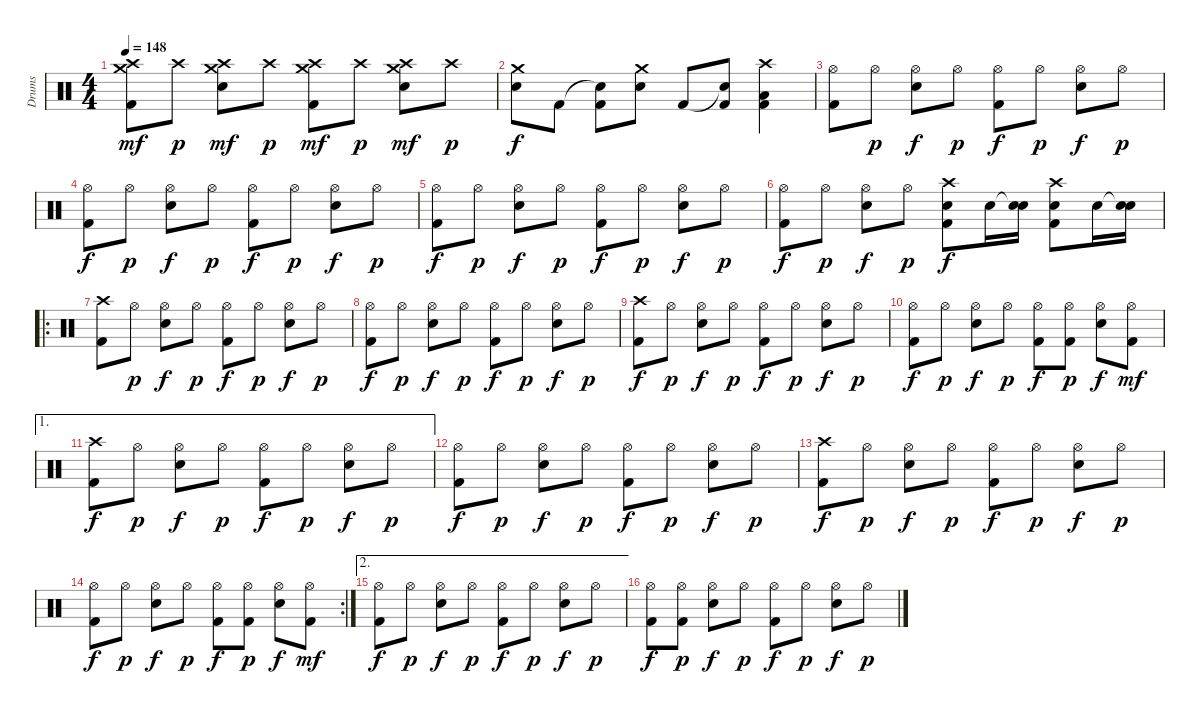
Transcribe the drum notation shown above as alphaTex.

\track ("Drums" "Drums") {instrument percussion}
\staff {score}
\articulation defaults
\ts (4 4)
\tempo 148
\clef neutral
\ks c
("Crash high (hit)" "Crash medium (hit)" "Kick (hit) 2").8{dy mf} "Crash high (hit)".8{dy p} ("Crash high (hit)" "Crash medium (hit)" "Snare (hit) 2").8{dy mf} "Crash high (hit)".8{dy p} ("Crash high (hit)" "Crash medium (hit)" "Kick (hit) 2").8{dy mf} "Crash high (hit)".8{dy p} ("Crash high (hit)" "Crash medium (hit)" "Snare (hit) 2").8{dy mf} "Crash high (hit)".8{dy p} |
("Crash medium (hit)" "Snare (hit) 2").8{dy f} "Kick (hit) 2".8 ("Snare (hit)"{t} "Kick (hit) 2").8 ("Crash medium (hit)" "Snare (hit) 2").8 "Kick (hit) 2".8 ("Snare (hit)"{t} "Kick (hit) 2").8 ("Crash high (hit)" "Low Floor Tom (hit)" "Kick (hit) 2").4 |
("Hi-Hat (open)" "Kick (hit) 2").8 "Hi-Hat (open)".8{dy p} ("Hi-Hat (open)" "Snare (hit) 2").8{dy f} "Hi-Hat (open)".8{dy p} ("Hi-Hat (open)" "Kick (hit) 2").8{dy f} "Hi-Hat (open)".8{dy p} ("Hi-Hat (open)" "Snare (hit) 2").8{dy f} "Hi-Hat (open)".8{dy p} |
("Hi-Hat (open)" "Kick (hit) 2").8{dy f} "Hi-Hat (open)".8{dy p} ("Hi-Hat (open)" "Snare (hit) 2").8{dy f} "Hi-Hat (open)".8{dy p} ("Hi-Hat (open)" "Kick (hit) 2").8{dy f} "Hi-Hat (open)".8{dy p} ("Hi-Hat (open)" "Snare (hit) 2").8{dy f} "Hi-Hat (open)".8{dy p} |
("Hi-Hat (open)" "Kick (hit) 2").8{dy f} "Hi-Hat (open)".8{dy p} ("Hi-Hat (open)" "Snare (hit) 2").8{dy f} "Hi-Hat (open)".8{dy p} ("Hi-Hat (open)" "Kick (hit) 2").8{dy f} "Hi-Hat (open)".8{dy p} ("Hi-Hat (open)" "Snare (hit) 2").8{dy f} "Hi-Hat (open)".8{dy p} |
("Hi-Hat (open)" "Kick (hit) 2").8{dy f} "Hi-Hat (open)".8{dy p} ("Hi-Hat (open)" "Snare (hit) 2").8{dy f} "Hi-Hat (open)".8{dy p} ("Crash high (hit)" "Snare (hit) 2" "Kick (hit) 2").8{dy f} "Snare (hit) 2".16 ("Snare (hit)"{t} "Snare (hit) 2").16 ("Crash high (hit)" "Snare (hit) 2" "Kick (hit) 2").8 "Snare (hit) 2".16 ("Snare (hit)"{t} "Snare (hit) 2").16 |
\ro
("Crash high (hit)" "Kick (hit) 2").8 "Hi-Hat (open)".8{dy p} ("Hi-Hat (open)" "Snare (hit) 2").8{dy f} "Hi-Hat (open)".8{dy p} ("Hi-Hat (open)" "Kick (hit) 2").8{dy f} "Hi-Hat (open)".8{dy p} ("Hi-Hat (open)" "Snare (hit) 2").8{dy f} "Hi-Hat (open)".8{dy p} |
("Hi-Hat (open)" "Kick (hit) 2").8{dy f} "Hi-Hat (open)".8{dy p} ("Hi-Hat (open)" "Snare (hit) 2").8{dy f} "Hi-Hat (open)".8{dy p} ("Hi-Hat (open)" "Kick (hit) 2").8{dy f} "Hi-Hat (open)".8{dy p} ("Hi-Hat (open)" "Snare (hit) 2").8{dy f} "Hi-Hat (open)".8{dy p} |
("Crash high (hit)" "Kick (hit) 2").8{dy f} "Hi-Hat (open)".8{dy p} ("Hi-Hat (open)" "Snare (hit) 2").8{dy f} "Hi-Hat (open)".8{dy p} ("Hi-Hat (open)" "Kick (hit) 2").8{dy f} "Hi-Hat (open)".8{dy p} ("Hi-Hat (open)" "Snare (hit) 2").8{dy f} "Hi-Hat (open)".8{dy p} |
("Hi-Hat (open)" "Kick (hit) 2").8{dy f} "Hi-Hat (open)".8{dy p} ("Hi-Hat (open)" "Snare (hit) 2").8{dy f} "Hi-Hat (open)".8{dy p} ("Hi-Hat (open)" "Kick (hit) 2").8{dy f} ("Hi-Hat (open)" "Kick (hit) 2").8{dy p} ("Hi-Hat (open)" "Snare (hit) 2").8{dy f} ("Hi-Hat (open)" "Kick (hit) 2").8{dy mf} |
\ae 1
("Crash high (hit)" "Kick (hit) 2").8{dy f} "Hi-Hat (open)".8{dy p} ("Hi-Hat (open)" "Snare (hit) 2").8{dy f} "Hi-Hat (open)".8{dy p} ("Hi-Hat (open)" "Kick (hit) 2").8{dy f} "Hi-Hat (open)".8{dy p} ("Hi-Hat (open)" "Snare (hit) 2").8{dy f} "Hi-Hat (open)".8{dy p} |
("Hi-Hat (open)" "Kick (hit) 2").8{dy f} "Hi-Hat (open)".8{dy p} ("Hi-Hat (open)" "Snare (hit) 2").8{dy f} "Hi-Hat (open)".8{dy p} ("Hi-Hat (open)" "Kick (hit) 2").8{dy f} "Hi-Hat (open)".8{dy p} ("Hi-Hat (open)" "Snare (hit) 2").8{dy f} "Hi-Hat (open)".8{dy p} |
("Crash high (hit)" "Kick (hit) 2").8{dy f} "Hi-Hat (open)".8{dy p} ("Hi-Hat (open)" "Snare (hit) 2").8{dy f} "Hi-Hat (open)".8{dy p} ("Hi-Hat (open)" "Kick (hit) 2").8{dy f} "Hi-Hat (open)".8{dy p} ("Hi-Hat (open)" "Snare (hit) 2").8{dy f} "Hi-Hat (open)".8{dy p} |
\rc 2
("Hi-Hat (open)" "Kick (hit) 2").8{dy f} "Hi-Hat (open)".8{dy p} ("Hi-Hat (open)" "Snare (hit) 2").8{dy f} "Hi-Hat (open)".8{dy p} ("Hi-Hat (open)" "Kick (hit) 2").8{dy f} ("Hi-Hat (open)" "Kick (hit) 2").8{dy p} ("Hi-Hat (open)" "Snare (hit) 2").8{dy f} ("Hi-Hat (open)" "Kick (hit) 2").8{dy mf} |
\ae 2
("Hi-Hat (open)" "Kick (hit) 2").8{dy f} "Hi-Hat (open)".8{dy p} ("Hi-Hat (open)" "Snare (hit) 2").8{dy f} "Hi-Hat (open)".8{dy p} ("Hi-Hat (open)" "Kick (hit) 2").8{dy f} "Hi-Hat (open)".8{dy p} ("Hi-Hat (open)" "Snare (hit) 2").8{dy f} "Hi-Hat (open)".8{dy p} |
("Hi-Hat (open)" "Kick (hit) 2").8{dy f} ("Hi-Hat (open)" "Kick (hit) 2").8{dy p} ("Hi-Hat (open)" "Snare (hit) 2").8{dy f} "Hi-Hat (open)".8{dy p} ("Hi-Hat (open)" "Kick (hit) 2").8{dy f} "Hi-Hat (open)".8{dy p} ("Hi-Hat (open)" "Snare (hit) 2").8{dy f} "Hi-Hat (open)".8{dy p}
